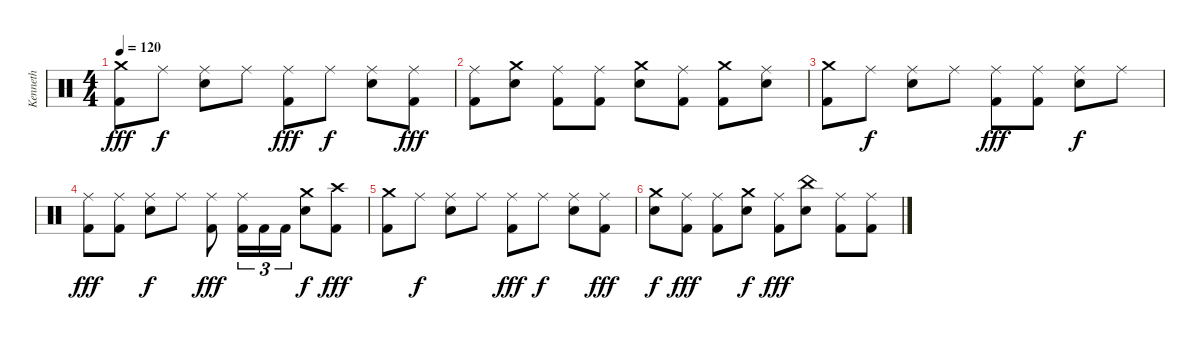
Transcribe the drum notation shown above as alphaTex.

\track ("Kenneth" "Kenneth") {instrument percussion}
\staff {score}
\articulation defaults
\ts (4 4)
\tempo 120
\clef neutral
\ks c
("Crash medium (hit)" "Kick (hit) 2").8{dy fff} "Ride (middle)".8{dy f} ("Ride (middle)" "Snare (hit) 2").8 "Ride (middle)".8 ("Ride (middle)" "Kick (hit) 2").8{dy fff} "Ride (middle)".8{dy f} ("Ride (middle)" "Snare (hit) 2").8 ("Ride (middle)" "Kick (hit) 2").8{dy fff} |
("Ride (middle)" "Kick (hit) 2").8 ("Crash medium (hit)" "Snare (hit) 2").8 ("Ride (middle)" "Kick (hit) 2").8 ("Ride (middle)" "Kick (hit) 2").8 ("Crash medium (hit)" "Snare (hit) 2").8 ("Ride (middle)" "Kick (hit) 2").8 ("Crash medium (hit)" "Kick (hit) 2").8 ("Ride (middle)" "Snare (hit) 2").8 |
("Crash medium (hit)" "Kick (hit) 2").8 "Ride (middle)".8{dy f} ("Ride (middle)" "Snare (hit) 2").8 "Ride (middle)".8 ("Ride (middle)" "Kick (hit) 2").8{dy fff} ("Ride (middle)" "Kick (hit) 2").8 ("Ride (middle)" "Snare (hit) 2").8{dy f} "Ride (middle)".8 |
("Ride (middle)" "Kick (hit) 2").8{dy fff} ("Ride (middle)" "Kick (hit) 2").8 ("Ride (middle)" "Snare (hit) 2").8{dy f} "Ride (middle)".8 ("Ride (middle)" "Kick (hit) 2").8{dy fff} ("Ride (middle)" "Kick (hit) 2").16{tu (3 2)} "Kick (hit) 2".16{tu (3 2)} "Kick (hit) 2".16{tu (3 2)} ("Crash medium (hit)" "Snare (hit) 2").8{dy f} ("Crash high (hit)" "Kick (hit) 2").8{dy fff} |
("Crash medium (hit)" "Kick (hit) 2").8 "Ride (middle)".8{dy f} ("Ride (middle)" "Snare (hit) 2").8 "Ride (middle)".8 ("Ride (middle)" "Kick (hit) 2").8{dy fff} "Ride (middle)".8{dy f} ("Ride (middle)" "Snare (hit) 2").8 ("Ride (middle)" "Kick (hit) 2").8{dy fff} |
("Crash medium (hit)" "Snare (hit) 2").8{dy f} ("Ride (middle)" "Kick (hit) 2").8{dy fff} ("Ride (middle)" "Kick (hit) 2").8 ("Crash medium (hit)" "Snare (hit) 2").8{dy f} ("Ride (middle)" "Kick (hit) 2").8{dy fff} ("China (hit)" "Snare (hit) 2").8 ("Ride (middle)" "Kick (hit) 2").8 ("Ride (middle)" "Kick (hit) 2").8
